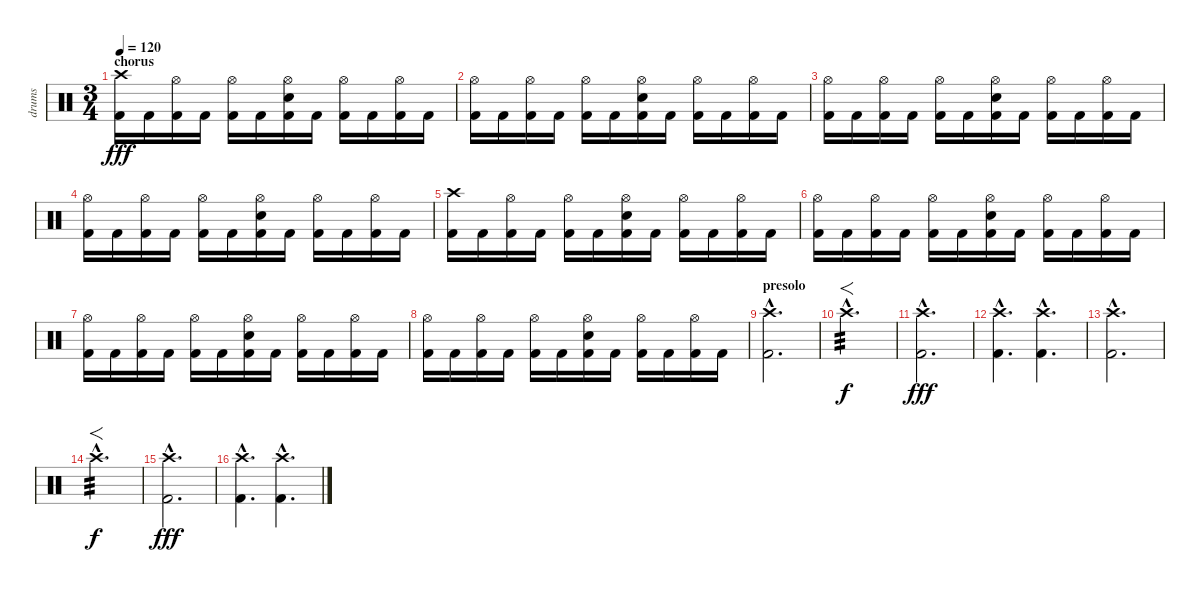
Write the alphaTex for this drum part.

\track ("drums" "drums") {instrument percussion}
\staff {score}
\articulation defaults
\ts (3 4)
\section ("" "chorus")
\tempo 120
\clef neutral
\ks c
("Crash high (hit)" "Kick (hit) 2").16{dy fff} "Kick (hit) 2".16 ("Hi-Hat (open)" "Kick (hit) 2").16 "Kick (hit) 2".16 ("Hi-Hat (open)" "Kick (hit) 2").16 "Kick (hit) 2".16 ("Hi-Hat (open)" "Snare (hit) 2" "Kick (hit) 2").16 "Kick (hit) 2".16 ("Hi-Hat (open)" "Kick (hit) 2").16 "Kick (hit) 2".16 ("Hi-Hat (open)" "Kick (hit) 2").16 "Kick (hit) 2".16 |
("Hi-Hat (open)" "Kick (hit) 2").16 "Kick (hit) 2".16 ("Hi-Hat (open)" "Kick (hit) 2").16 "Kick (hit) 2".16 ("Hi-Hat (open)" "Kick (hit) 2").16 "Kick (hit) 2".16 ("Hi-Hat (open)" "Snare (hit) 2" "Kick (hit) 2").16 "Kick (hit) 2".16 ("Hi-Hat (open)" "Kick (hit) 2").16 "Kick (hit) 2".16 ("Hi-Hat (open)" "Kick (hit) 2").16 "Kick (hit) 2".16 |
("Hi-Hat (open)" "Kick (hit) 2").16 "Kick (hit) 2".16 ("Hi-Hat (open)" "Kick (hit) 2").16 "Kick (hit) 2".16 ("Hi-Hat (open)" "Kick (hit) 2").16 "Kick (hit) 2".16 ("Hi-Hat (open)" "Snare (hit) 2" "Kick (hit) 2").16 "Kick (hit) 2".16 ("Hi-Hat (open)" "Kick (hit) 2").16 "Kick (hit) 2".16 ("Hi-Hat (open)" "Kick (hit) 2").16 "Kick (hit) 2".16 |
("Hi-Hat (open)" "Kick (hit) 2").16 "Kick (hit) 2".16 ("Hi-Hat (open)" "Kick (hit) 2").16 "Kick (hit) 2".16 ("Hi-Hat (open)" "Kick (hit) 2").16 "Kick (hit) 2".16 ("Hi-Hat (open)" "Snare (hit) 2" "Kick (hit) 2").16 "Kick (hit) 2".16 ("Hi-Hat (open)" "Kick (hit) 2").16 "Kick (hit) 2".16 ("Hi-Hat (open)" "Kick (hit) 2").16 "Kick (hit) 2".16 |
("Crash high (hit)" "Kick (hit) 2").16 "Kick (hit) 2".16 ("Hi-Hat (open)" "Kick (hit) 2").16 "Kick (hit) 2".16 ("Hi-Hat (open)" "Kick (hit) 2").16 "Kick (hit) 2".16 ("Hi-Hat (open)" "Snare (hit) 2" "Kick (hit) 2").16 "Kick (hit) 2".16 ("Hi-Hat (open)" "Kick (hit) 2").16 "Kick (hit) 2".16 ("Hi-Hat (open)" "Kick (hit) 2").16 "Kick (hit) 2".16 |
("Hi-Hat (open)" "Kick (hit) 2").16 "Kick (hit) 2".16 ("Hi-Hat (open)" "Kick (hit) 2").16 "Kick (hit) 2".16 ("Hi-Hat (open)" "Kick (hit) 2").16 "Kick (hit) 2".16 ("Hi-Hat (open)" "Snare (hit) 2" "Kick (hit) 2").16 "Kick (hit) 2".16 ("Hi-Hat (open)" "Kick (hit) 2").16 "Kick (hit) 2".16 ("Hi-Hat (open)" "Kick (hit) 2").16 "Kick (hit) 2".16 |
("Hi-Hat (open)" "Kick (hit) 2").16 "Kick (hit) 2".16 ("Hi-Hat (open)" "Kick (hit) 2").16 "Kick (hit) 2".16 ("Hi-Hat (open)" "Kick (hit) 2").16 "Kick (hit) 2".16 ("Hi-Hat (open)" "Snare (hit) 2" "Kick (hit) 2").16 "Kick (hit) 2".16 ("Hi-Hat (open)" "Kick (hit) 2").16 "Kick (hit) 2".16 ("Hi-Hat (open)" "Kick (hit) 2").16 "Kick (hit) 2".16 |
("Hi-Hat (open)" "Kick (hit) 2").16 "Kick (hit) 2".16 ("Hi-Hat (open)" "Kick (hit) 2").16 "Kick (hit) 2".16 ("Hi-Hat (open)" "Kick (hit) 2").16 "Kick (hit) 2".16 ("Hi-Hat (open)" "Snare (hit) 2" "Kick (hit) 2").16 "Kick (hit) 2".16 ("Hi-Hat (open)" "Kick (hit) 2").16 "Kick (hit) 2".16 ("Hi-Hat (open)" "Kick (hit) 2").16 "Kick (hit) 2".16 |
\section ("" "presolo")
("Crash high (hit)"{hac} "Kick (hit) 2"{hac}).2{d} |
"Crash high (hit)"{hac}.2{f d tp 3 dy f} |
("Crash high (hit)"{hac} "Kick (hit) 2"{hac}).2{d dy fff} |
("Crash high (hit)"{hac} "Kick (hit) 2"{hac}).4{d} ("Crash high (hit)"{hac} "Kick (hit) 2"{hac}).4{d} |
("Crash high (hit)"{hac} "Kick (hit) 2"{hac}).2{d} |
"Crash high (hit)"{hac}.2{f d tp 3 dy f} |
("Crash high (hit)"{hac} "Kick (hit) 2"{hac}).2{d dy fff} |
("Crash high (hit)"{hac} "Kick (hit) 2"{hac}).4{d} ("Crash high (hit)"{hac} "Kick (hit) 2"{hac}).4{d}
